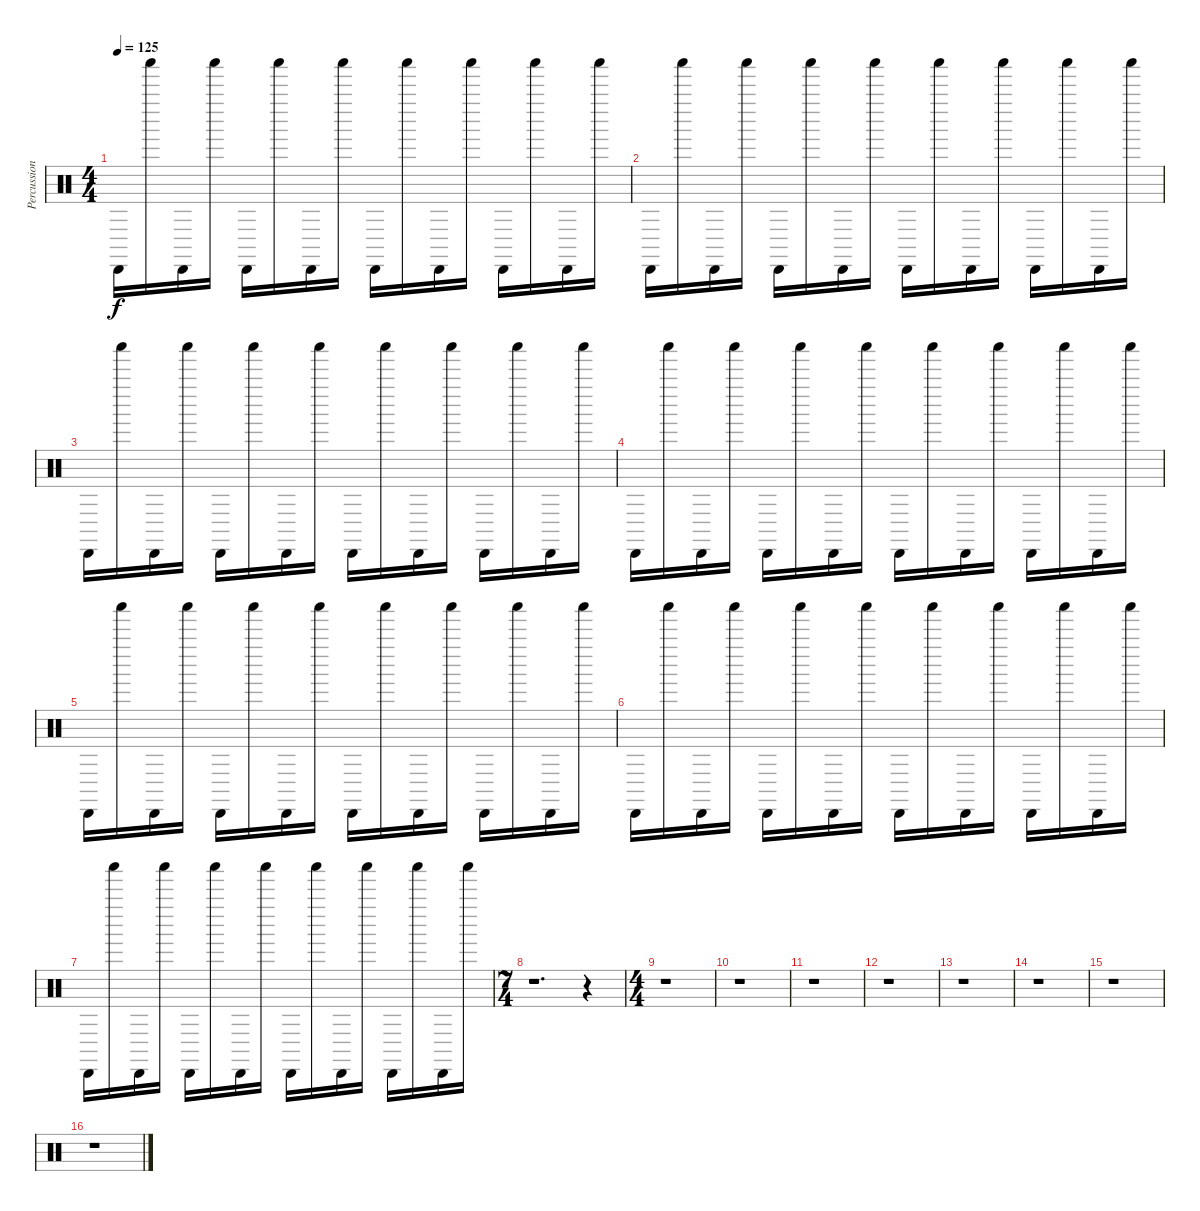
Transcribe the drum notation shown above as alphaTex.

\track ("Percussion" "Percussion") {instrument percussion}
\staff {score}
\articulation defaults
\ts (4 4)
\tempo 125
\clef neutral
\ks c "Cabasa (hit)".16{dy f} "Shaker (hit)".16 "Cabasa (hit)".16 "Shaker (hit)".16 "Cabasa (hit)".16 "Shaker (hit)".16 "Cabasa (hit)".16 "Shaker (hit)".16 "Cabasa (hit)".16 "Shaker (hit)".16 "Cabasa (hit)".16 "Shaker (hit)".16 "Cabasa (hit)".16 "Shaker (hit)".16 "Cabasa (hit)".16 "Shaker (hit)".16
|
"Cabasa (hit)".16 "Shaker (hit)".16 "Cabasa (hit)".16 "Shaker (hit)".16 "Cabasa (hit)".16 "Shaker (hit)".16 "Cabasa (hit)".16 "Shaker (hit)".16 "Cabasa (hit)".16 "Shaker (hit)".16 "Cabasa (hit)".16 "Shaker (hit)".16 "Cabasa (hit)".16 "Shaker (hit)".16 "Cabasa (hit)".16 "Shaker (hit)".16 |
"Cabasa (hit)".16 "Shaker (hit)".16 "Cabasa (hit)".16 "Shaker (hit)".16 "Cabasa (hit)".16 "Shaker (hit)".16 "Cabasa (hit)".16 "Shaker (hit)".16 "Cabasa (hit)".16 "Shaker (hit)".16 "Cabasa (hit)".16 "Shaker (hit)".16 "Cabasa (hit)".16 "Shaker (hit)".16 "Cabasa (hit)".16 "Shaker (hit)".16 |
"Cabasa (hit)".16 "Shaker (hit)".16 "Cabasa (hit)".16 "Shaker (hit)".16 "Cabasa (hit)".16 "Shaker (hit)".16 "Cabasa (hit)".16 "Shaker (hit)".16 "Cabasa (hit)".16 "Shaker (hit)".16 "Cabasa (hit)".16 "Shaker (hit)".16 "Cabasa (hit)".16 "Shaker (hit)".16 "Cabasa (hit)".16 "Shaker (hit)".16 |
"Cabasa (hit)".16 "Shaker (hit)".16 "Cabasa (hit)".16 "Shaker (hit)".16 "Cabasa (hit)".16 "Shaker (hit)".16 "Cabasa (hit)".16 "Shaker (hit)".16 "Cabasa (hit)".16 "Shaker (hit)".16 "Cabasa (hit)".16 "Shaker (hit)".16 "Cabasa (hit)".16 "Shaker (hit)".16 "Cabasa (hit)".16 "Shaker (hit)".16 |
"Cabasa (hit)".16 "Shaker (hit)".16 "Cabasa (hit)".16 "Shaker (hit)".16 "Cabasa (hit)".16 "Shaker (hit)".16 "Cabasa (hit)".16 "Shaker (hit)".16 "Cabasa (hit)".16 "Shaker (hit)".16 "Cabasa (hit)".16 "Shaker (hit)".16 "Cabasa (hit)".16 "Shaker (hit)".16 "Cabasa (hit)".16 "Shaker (hit)".16 |
"Cabasa (hit)".16 "Shaker (hit)".16 "Cabasa (hit)".16 "Shaker (hit)".16 "Cabasa (hit)".16 "Shaker (hit)".16 "Cabasa (hit)".16 "Shaker (hit)".16 "Cabasa (hit)".16 "Shaker (hit)".16 "Cabasa (hit)".16 "Shaker (hit)".16 "Cabasa (hit)".16 "Shaker (hit)".16 "Cabasa (hit)".16 "Shaker (hit)".16 |
\ts (7 4)
r.1{d} r.4 |
\ts (4 4)
r.1 |
r.1 |
r.1 |
r.1 |
r.1 |
r.1 |
r.1 |
r.1
